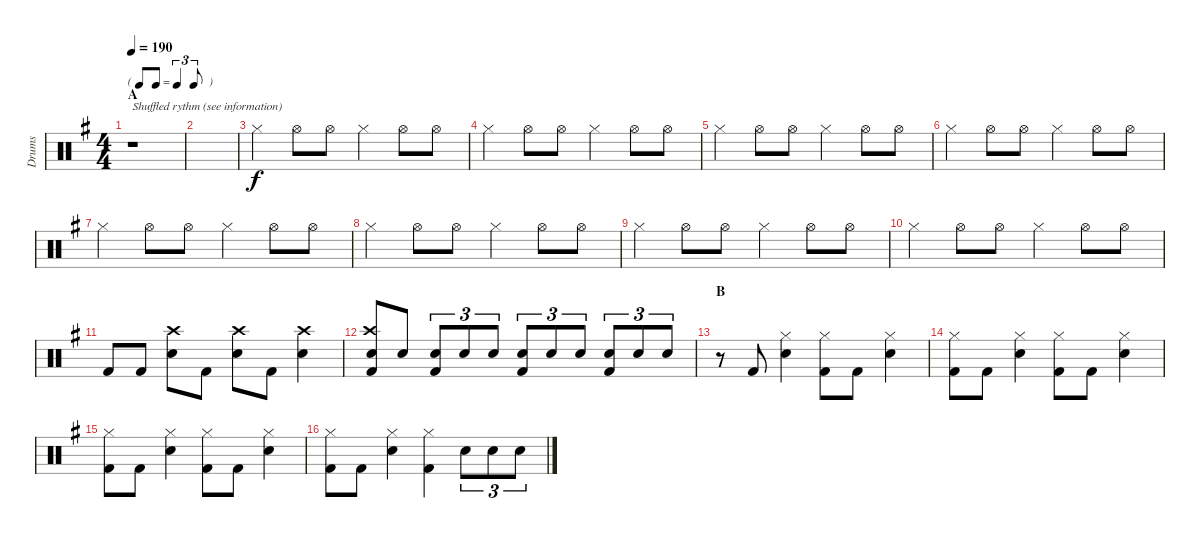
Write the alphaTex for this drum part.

\track ("Drums" "Drums") {instrument percussion}
\staff {score}
\articulation defaults
\ts (4 4)
\tf triplet8th
\section ("" "A")
\tempo 190
\clef neutral
\ks g
r.1{txt "Shuffled rythm (see information)" dy f} |
|
"Hi-Hat (closed)".4 "Hi-Hat (open)".8 "Hi-Hat (open)".8 "Hi-Hat (closed)".4 "Hi-Hat (open)".8 "Hi-Hat (open)".8 |
"Hi-Hat (closed)".4 "Hi-Hat (open)".8 "Hi-Hat (open)".8 "Hi-Hat (closed)".4 "Hi-Hat (open)".8 "Hi-Hat (open)".8 |
"Hi-Hat (closed)".4 "Hi-Hat (open)".8 "Hi-Hat (open)".8 "Hi-Hat (closed)".4 "Hi-Hat (open)".8 "Hi-Hat (open)".8 |
"Hi-Hat (closed)".4 "Hi-Hat (open)".8 "Hi-Hat (open)".8 "Hi-Hat (closed)".4 "Hi-Hat (open)".8 "Hi-Hat (open)".8 |
"Hi-Hat (closed)".4 "Hi-Hat (open)".8 "Hi-Hat (open)".8 "Hi-Hat (closed)".4 "Hi-Hat (open)".8 "Hi-Hat (open)".8 |
"Hi-Hat (closed)".4 "Hi-Hat (open)".8 "Hi-Hat (open)".8 "Hi-Hat (closed)".4 "Hi-Hat (open)".8 "Hi-Hat (open)".8 |
"Hi-Hat (closed)".4 "Hi-Hat (open)".8 "Hi-Hat (open)".8 "Hi-Hat (closed)".4 "Hi-Hat (open)".8 "Hi-Hat (open)".8 |
"Hi-Hat (closed)".4 "Hi-Hat (open)".8 "Hi-Hat (open)".8 "Hi-Hat (closed)".4 "Hi-Hat (open)".8 "Hi-Hat (open)".8 |
"Kick (hit) 2".8 "Kick (hit) 2".8 ("Crash high (hit)" "Snare (hit) 2").8 "Kick (hit) 2".8 ("Crash high (hit)" "Snare (hit) 2").8 "Kick (hit) 2".8 ("Crash high (hit)" "Snare (hit) 2").4 |
("Crash high (hit)" "Snare (hit) 2" "Kick (hit) 2").8 "Snare (hit) 2".8 ("Snare (hit) 2" "Kick (hit) 2").8{tu (3 2)} "Snare (hit) 2".8{tu (3 2)} "Snare (hit) 2".8{tu (3 2)} ("Snare (hit) 2" "Kick (hit) 2").8{tu (3 2)} "Snare (hit) 2".8{tu (3 2)} "Snare (hit) 2".8{tu (3 2)} ("Snare (hit) 2" "Kick (hit) 2").8{tu (3 2)} "Snare (hit) 2".8{tu (3 2)} "Snare (hit) 2".8{tu (3 2)} |
\section ("" "B")
r.8 "Kick (hit) 2".8 ("Hi-Hat (closed)" "Snare (hit) 2").4 ("Hi-Hat (closed)" "Kick (hit) 2").8 "Kick (hit) 2".8 ("Hi-Hat (closed)" "Snare (hit) 2").4 |
("Hi-Hat (closed)" "Kick (hit) 2").8 "Kick (hit) 2".8 ("Hi-Hat (closed)" "Snare (hit) 2").4 ("Hi-Hat (closed)" "Kick (hit) 2").8 "Kick (hit) 2".8 ("Hi-Hat (closed)" "Snare (hit) 2").4 |
("Hi-Hat (closed)" "Kick (hit) 2").8 "Kick (hit) 2".8 ("Hi-Hat (closed)" "Snare (hit) 2").4 ("Hi-Hat (closed)" "Kick (hit) 2").8 "Kick (hit) 2".8 ("Hi-Hat (closed)" "Snare (hit) 2").4 |
("Hi-Hat (closed)" "Kick (hit) 2").8 "Kick (hit) 2".8 ("Hi-Hat (closed)" "Snare (hit) 2").4 ("Hi-Hat (closed)" "Kick (hit) 2").4 "Snare (hit) 2".8{tu (3 2)} "Snare (hit) 2".8{tu (3 2)} "Snare (hit) 2".8{tu (3 2)}
